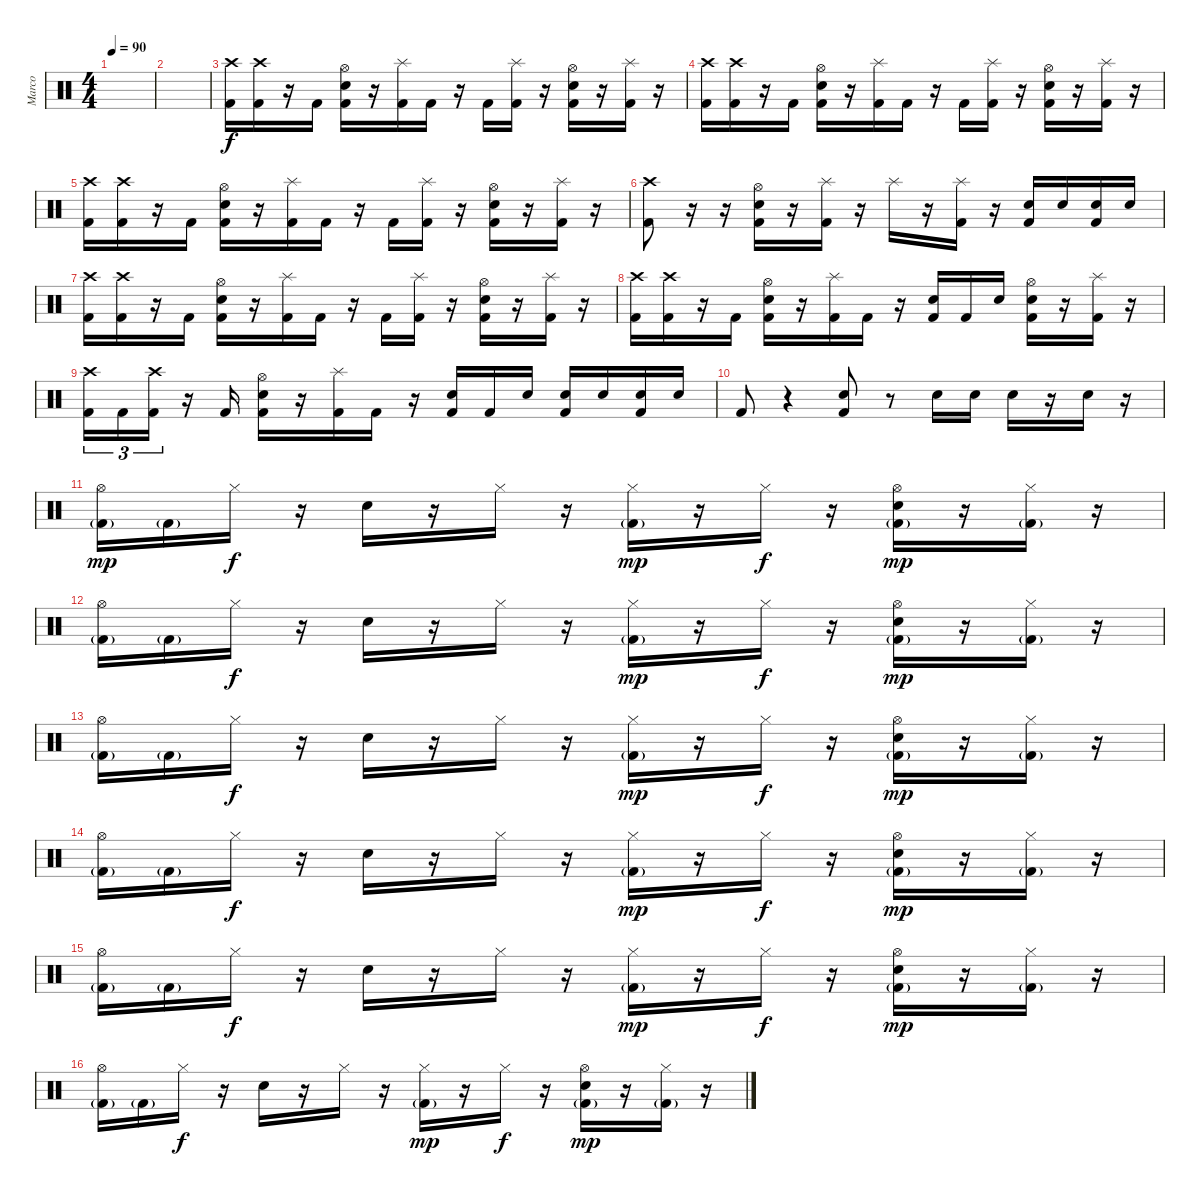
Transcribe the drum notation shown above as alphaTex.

\track ("Marco" "Marco") {instrument percussion}
\staff {score}
\articulation defaults
\ts (4 4)
\tempo 90
\clef neutral
\ks c
|
|
("Crash high (hit)" "Kick (hit) 2").16 ("Crash high (hit)" "Kick (hit) 2").16 r.16 "Kick (hit) 2".16 ("Hi-Hat (open)" "Snare (hit) 2" "Kick (hit) 2").16 r.16 ("Splash (hit)" "Kick (hit) 2").16 "Kick (hit) 2".16 r.16 "Kick (hit) 2".16 ("Splash (hit)" "Kick (hit) 2").16 r.16 ("Kick (hit) 2" "Hi-Hat (open)" "Snare (hit) 2").16 r.16 ("Splash (hit)" "Kick (hit) 2").16 r.16 |
("Crash high (hit)" "Kick (hit) 2").16 ("Crash high (hit)" "Kick (hit) 2").16 r.16 "Kick (hit) 2".16 ("Hi-Hat (open)" "Snare (hit) 2" "Kick (hit) 2").16 r.16 ("Splash (hit)" "Kick (hit) 2").16 "Kick (hit) 2".16 r.16 "Kick (hit) 2".16 ("Splash (hit)" "Kick (hit) 2").16 r.16 ("Kick (hit) 2" "Hi-Hat (open)" "Snare (hit) 2").16 r.16 ("Splash (hit)" "Kick (hit) 2").16 r.16 |
("Crash high (hit)" "Kick (hit) 2").16 ("Crash high (hit)" "Kick (hit) 2").16 r.16 "Kick (hit) 2".16 ("Hi-Hat (open)" "Snare (hit) 2" "Kick (hit) 2").16 r.16 ("Splash (hit)" "Kick (hit) 2").16 "Kick (hit) 2".16 r.16 "Kick (hit) 2".16 ("Splash (hit)" "Kick (hit) 2").16 r.16 ("Kick (hit) 2" "Hi-Hat (open)" "Snare (hit) 2").16 r.16 ("Splash (hit)" "Kick (hit) 2").16 r.16 |
("Crash high (hit)" "Kick (hit) 2").8 r.16 r.16 ("Hi-Hat (open)" "Snare (hit) 2" "Kick (hit) 2").16 r.16 ("Splash (hit)" "Kick (hit) 2").16 r.16 "Splash (hit)".16 r.16 ("Splash (hit)" "Kick (hit) 2").16 r.16 ("Kick (hit) 2" "Snare (hit) 2").16 "Snare (hit) 2".16 ("Snare (hit) 2" "Kick (hit) 2").16 "Snare (hit) 2".16 |
("Crash high (hit)" "Kick (hit) 2").16 ("Crash high (hit)" "Kick (hit) 2").16 r.16 "Kick (hit) 2".16 ("Hi-Hat (open)" "Snare (hit) 2" "Kick (hit) 2").16 r.16 ("Splash (hit)" "Kick (hit) 2").16 "Kick (hit) 2".16 r.16 "Kick (hit) 2".16 ("Splash (hit)" "Kick (hit) 2").16 r.16 ("Kick (hit) 2" "Hi-Hat (open)" "Snare (hit) 2").16 r.16 ("Splash (hit)" "Kick (hit) 2").16 r.16 |
("Crash high (hit)" "Kick (hit) 2").16 ("Crash high (hit)" "Kick (hit) 2").16 r.16 "Kick (hit) 2".16 ("Hi-Hat (open)" "Snare (hit) 2" "Kick (hit) 2").16 r.16 ("Splash (hit)" "Kick (hit) 2").16 "Kick (hit) 2".16 r.16 ("Snare (hit) 2" "Kick (hit) 2").16 "Kick (hit) 2".16 "Snare (hit) 2".16 ("Kick (hit) 2" "Hi-Hat (open)" "Snare (hit) 2").16 r.16 ("Splash (hit)" "Kick (hit) 2").16 r.16 |
("Crash high (hit)" "Kick (hit) 2").16{tu (3 2)} "Kick (hit) 2".16{tu (3 2)} ("Crash high (hit)" "Kick (hit) 2").16{tu (3 2)} r.16 "Kick (hit) 2".16 ("Hi-Hat (open)" "Snare (hit) 2" "Kick (hit) 2").16 r.16 ("Splash (hit)" "Kick (hit) 2").16 "Kick (hit) 2".16 r.16 ("Snare (hit) 2" "Kick (hit) 2").16 "Kick (hit) 2".16 "Snare (hit) 2".16 ("Snare (hit) 2" "Kick (hit) 2").16 "Snare (hit) 2".16 ("Snare (hit) 2" "Kick (hit) 2").16 "Snare (hit) 2".16 |
"Kick (hit) 2".8 r.4 ("Snare (hit) 2" "Kick (hit) 2").8 r.8 "Snare (hit) 2".16 "Snare (hit) 2".16 "Snare (hit) 2".16 r.16 "Snare (hit) 2".16 r.16 |
("Hi-Hat (open)" "Kick (hit) 2"{g}).16{dy mp} "Kick (hit) 2"{g}.16 "Hi-Hat (closed)".16{dy f} r.16 "Electric Snare (hit)".16 r.16 "Hi-Hat (closed)".16 r.16 ("Hi-Hat (closed)" "Kick (hit) 2"{g}).16{dy mp} r.16 "Hi-Hat (closed)".16{dy f} r.16 ("Kick (hit) 2"{g} "Hi-Hat (open)" "Electric Snare (hit)").16{dy mp} r.16 ("Hi-Hat (closed)" "Kick (hit) 2"{g}).16 r.16 |
("Hi-Hat (open)" "Kick (hit) 2"{g}).16 "Kick (hit) 2"{g}.16 "Hi-Hat (closed)".16{dy f} r.16 "Electric Snare (hit)".16 r.16 "Hi-Hat (closed)".16 r.16 ("Hi-Hat (closed)" "Kick (hit) 2"{g}).16{dy mp} r.16 "Hi-Hat (closed)".16{dy f} r.16 ("Kick (hit) 2"{g} "Hi-Hat (open)" "Electric Snare (hit)").16{dy mp} r.16 ("Hi-Hat (closed)" "Kick (hit) 2"{g}).16 r.16 |
("Hi-Hat (open)" "Kick (hit) 2"{g}).16 "Kick (hit) 2"{g}.16 "Hi-Hat (closed)".16{dy f} r.16 "Electric Snare (hit)".16 r.16 "Hi-Hat (closed)".16 r.16 ("Hi-Hat (closed)" "Kick (hit) 2"{g}).16{dy mp} r.16 "Hi-Hat (closed)".16{dy f} r.16 ("Kick (hit) 2"{g} "Hi-Hat (open)" "Electric Snare (hit)").16{dy mp} r.16 ("Hi-Hat (closed)" "Kick (hit) 2"{g}).16 r.16 |
("Hi-Hat (open)" "Kick (hit) 2"{g}).16 "Kick (hit) 2"{g}.16 "Hi-Hat (closed)".16{dy f} r.16 "Electric Snare (hit)".16 r.16 "Hi-Hat (closed)".16 r.16 ("Hi-Hat (closed)" "Kick (hit) 2"{g}).16{dy mp} r.16 "Hi-Hat (closed)".16{dy f} r.16 ("Kick (hit) 2"{g} "Hi-Hat (open)" "Electric Snare (hit)").16{dy mp} r.16 ("Hi-Hat (closed)" "Kick (hit) 2"{g}).16 r.16 |
("Hi-Hat (open)" "Kick (hit) 2"{g}).16 "Kick (hit) 2"{g}.16 "Hi-Hat (closed)".16{dy f} r.16 "Electric Snare (hit)".16 r.16 "Hi-Hat (closed)".16 r.16 ("Hi-Hat (closed)" "Kick (hit) 2"{g}).16{dy mp} r.16 "Hi-Hat (closed)".16{dy f} r.16 ("Kick (hit) 2"{g} "Hi-Hat (open)" "Electric Snare (hit)").16{dy mp} r.16 ("Hi-Hat (closed)" "Kick (hit) 2"{g}).16 r.16 |
("Hi-Hat (open)" "Kick (hit) 2"{g}).16 "Kick (hit) 2"{g}.16 "Hi-Hat (closed)".16{dy f} r.16 "Electric Snare (hit)".16 r.16 "Hi-Hat (closed)".16 r.16 ("Hi-Hat (closed)" "Kick (hit) 2"{g}).16{dy mp} r.16 "Hi-Hat (closed)".16{dy f} r.16 ("Kick (hit) 2"{g} "Hi-Hat (open)" "Electric Snare (hit)").16{dy mp} r.16 ("Hi-Hat (closed)" "Kick (hit) 2"{g}).16 r.16
